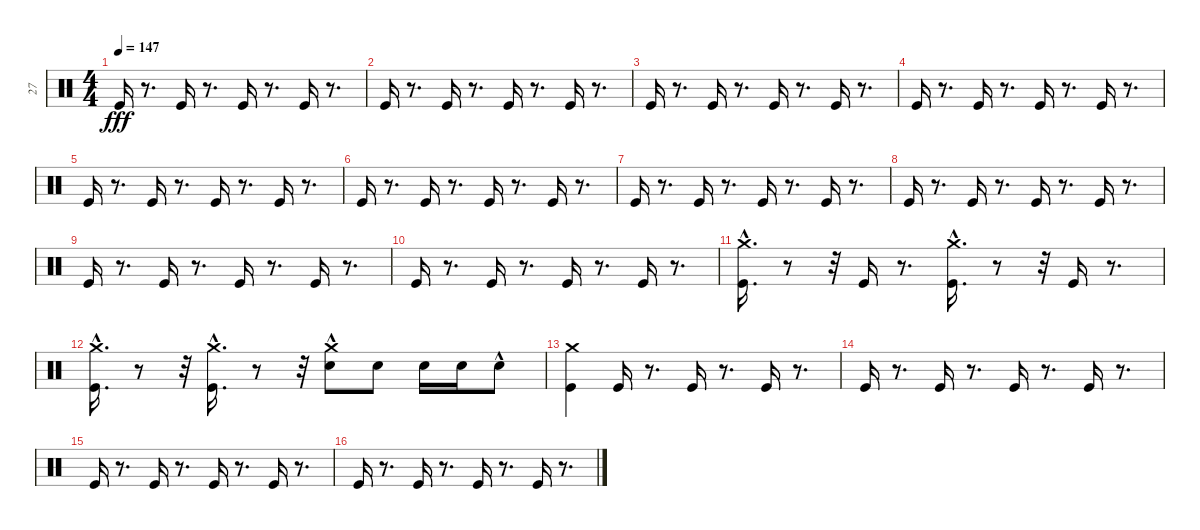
\track ("27" "27") {instrument percussion}
\staff {score}
\articulation defaults
\ts (4 4)
\tempo 147
\clef neutral
\ks c "Kick (hit)".16{dy fff}
r.8{d} "Kick (hit)".16 r.8{d} "Kick (hit)".16 r.8{d} "Kick (hit)".16 r.8{d} |
"Kick (hit)".16 r.8{d} "Kick (hit)".16 r.8{d} "Kick (hit)".16 r.8{d} "Kick (hit)".16 r.8{d} |
"Kick (hit)".16 r.8{d} "Kick (hit)".16 r.8{d} "Kick (hit)".16 r.8{d} "Kick (hit)".16 r.8{d} |
"Kick (hit)".16 r.8{d} "Kick (hit)".16 r.8{d} "Kick (hit)".16 r.8{d} "Kick (hit)".16 r.8{d} |
"Kick (hit)".16 r.8{d} "Kick (hit)".16 r.8{d} "Kick (hit)".16 r.8{d} "Kick (hit)".16 r.8{d} |
"Kick (hit)".16 r.8{d} "Kick (hit)".16 r.8{d} "Kick (hit)".16 r.8{d} "Kick (hit)".16 r.8{d} |
"Kick (hit)".16 r.8{d} "Kick (hit)".16 r.8{d} "Kick (hit)".16 r.8{d} "Kick (hit)".16 r.8{d} |
"Kick (hit)".16 r.8{d} "Kick (hit)".16 r.8{d} "Kick (hit)".16 r.8{d} "Kick (hit)".16 r.8{d} |
"Kick (hit)".16 r.8{d} "Kick (hit)".16 r.8{d} "Kick (hit)".16 r.8{d} "Kick (hit)".16 r.8{d} |
"Kick (hit)".16 r.8{d} "Kick (hit)".16 r.8{d} "Kick (hit)".16 r.8{d} "Kick (hit)".16 r.8{d} |
("Crash medium (hit)"{hac} "Kick (hit)").16{d} r.8 r.32 "Kick (hit)".16 r.8{d} ("Crash medium (hit)"{hac} "Kick (hit)").16{d} r.8 r.32 "Kick (hit)".16 r.8{d} |
("Crash medium (hit)"{hac} "Kick (hit)").16{d} r.8 r.32 ("Crash medium (hit)"{hac} "Kick (hit)").16{d} r.8 r.32 ("Crash medium (hit)"{hac} "Snare (hit)").8 "Snare (hit)".8 "Snare (hit)".16 "Snare (hit)".16 "Snare (hit)"{hac}.8 |
("Crash medium (hit)" "Kick (hit)").4 "Kick (hit)".16 r.8{d} "Kick (hit)".16 r.8{d} "Kick (hit)".16 r.8{d} |
"Kick (hit)".16 r.8{d} "Kick (hit)".16 r.8{d} "Kick (hit)".16 r.8{d} "Kick (hit)".16 r.8{d} |
"Kick (hit)".16 r.8{d} "Kick (hit)".16 r.8{d} "Kick (hit)".16 r.8{d} "Kick (hit)".16 r.8{d} |
"Kick (hit)".16 r.8{d} "Kick (hit)".16 r.8{d} "Kick (hit)".16 r.8{d} "Kick (hit)".16 r.8{d}
